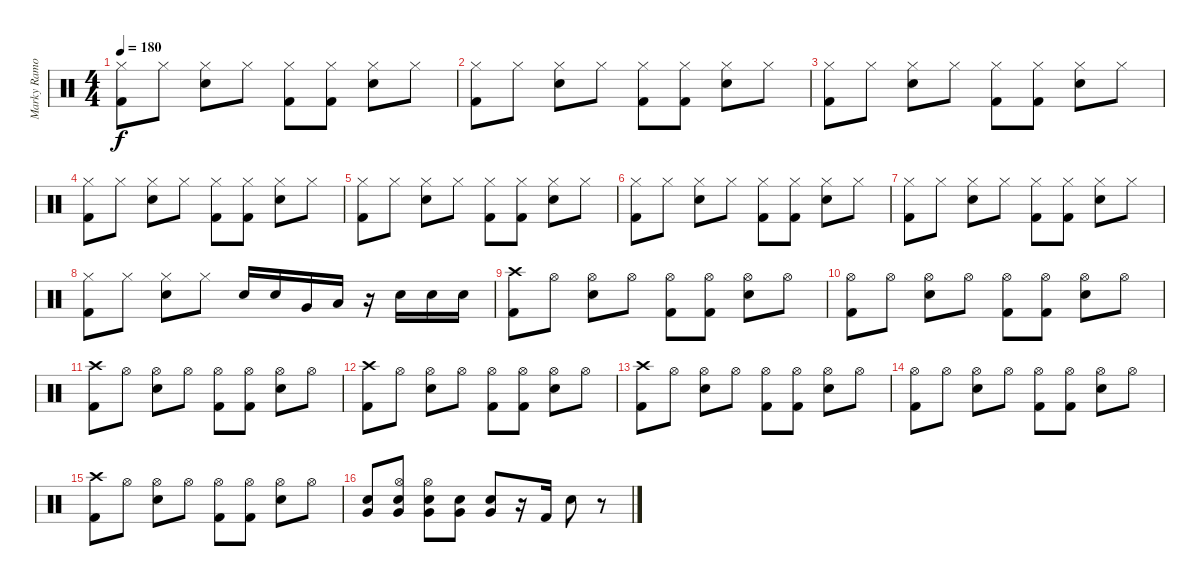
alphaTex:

\track ("Marky Ramone" "Marky Ramo") {instrument percussion}
\staff {score}
\articulation defaults
\ts (4 4)
\tempo 180
\clef neutral
\ks c
("Kick (hit) 2" "Hi-Hat (closed)").8{dy f} "Hi-Hat (closed)".8 ("Electric Snare (hit)" "Hi-Hat (closed)").8 "Hi-Hat (closed)".8 ("Kick (hit) 2" "Hi-Hat (closed)").8 ("Kick (hit) 2" "Hi-Hat (closed)").8 ("Electric Snare (hit)" "Hi-Hat (closed)").8 "Hi-Hat (closed)".8 |
("Hi-Hat (closed)" "Kick (hit) 2").8 "Hi-Hat (closed)".8 ("Electric Snare (hit)" "Hi-Hat (closed)").8 "Hi-Hat (closed)".8 ("Hi-Hat (closed)" "Kick (hit) 2").8 ("Hi-Hat (closed)" "Kick (hit) 2").8 ("Electric Snare (hit)" "Hi-Hat (closed)").8 "Hi-Hat (closed)".8 |
("Kick (hit) 2" "Hi-Hat (closed)").8 "Hi-Hat (closed)".8 ("Electric Snare (hit)" "Hi-Hat (closed)").8 "Hi-Hat (closed)".8 ("Kick (hit) 2" "Hi-Hat (closed)").8 ("Kick (hit) 2" "Hi-Hat (closed)").8 ("Electric Snare (hit)" "Hi-Hat (closed)").8 "Hi-Hat (closed)".8 |
("Hi-Hat (closed)" "Kick (hit) 2").8 "Hi-Hat (closed)".8 ("Electric Snare (hit)" "Hi-Hat (closed)").8 "Hi-Hat (closed)".8 ("Hi-Hat (closed)" "Kick (hit) 2").8 ("Hi-Hat (closed)" "Kick (hit) 2").8 ("Electric Snare (hit)" "Hi-Hat (closed)").8 "Hi-Hat (closed)".8 |
("Kick (hit) 2" "Hi-Hat (closed)").8 "Hi-Hat (closed)".8 ("Electric Snare (hit)" "Hi-Hat (closed)").8 "Hi-Hat (closed)".8 ("Kick (hit) 2" "Hi-Hat (closed)").8 ("Kick (hit) 2" "Hi-Hat (closed)").8 ("Electric Snare (hit)" "Hi-Hat (closed)").8 "Hi-Hat (closed)".8 |
("Hi-Hat (closed)" "Kick (hit) 2").8 "Hi-Hat (closed)".8 ("Electric Snare (hit)" "Hi-Hat (closed)").8 "Hi-Hat (closed)".8 ("Hi-Hat (closed)" "Kick (hit) 2").8 ("Hi-Hat (closed)" "Kick (hit) 2").8 ("Electric Snare (hit)" "Hi-Hat (closed)").8 "Hi-Hat (closed)".8 |
("Kick (hit) 2" "Hi-Hat (closed)").8 "Hi-Hat (closed)".8 ("Electric Snare (hit)" "Hi-Hat (closed)").8 "Hi-Hat (closed)".8 ("Kick (hit) 2" "Hi-Hat (closed)").8 ("Kick (hit) 2" "Hi-Hat (closed)").8 ("Electric Snare (hit)" "Hi-Hat (closed)").8 "Hi-Hat (closed)".8 |
("Hi-Hat (closed)" "Kick (hit) 2").8 "Hi-Hat (closed)".8 ("Electric Snare (hit)" "Hi-Hat (closed)").8 "Hi-Hat (closed)".8 "Electric Snare (hit)".16 "Electric Snare (hit)".16 "Very Low Tom (hit)".16 "Low Floor Tom (hit)".16 r.16 "Electric Snare (hit)".16 "Electric Snare (hit)".16 "Electric Snare (hit)".16 |
("Crash high (hit)" "Kick (hit) 2").8 "Hi-Hat (open)".8 ("Electric Snare (hit)" "Hi-Hat (open)").8 "Hi-Hat (open)".8 ("Kick (hit) 2" "Hi-Hat (open)").8 ("Kick (hit) 2" "Hi-Hat (open)").8 ("Electric Snare (hit)" "Hi-Hat (open)").8 "Hi-Hat (open)".8 |
("Hi-Hat (open)" "Kick (hit) 2").8 "Hi-Hat (open)".8 ("Hi-Hat (open)" "Electric Snare (hit)").8 "Hi-Hat (open)".8 ("Hi-Hat (open)" "Kick (hit) 2").8 ("Hi-Hat (open)" "Kick (hit) 2").8 ("Hi-Hat (open)" "Electric Snare (hit)").8 "Hi-Hat (open)".8 |
("Crash high (hit)" "Kick (hit) 2").8 "Hi-Hat (open)".8 ("Hi-Hat (open)" "Electric Snare (hit)").8 "Hi-Hat (open)".8 ("Hi-Hat (open)" "Kick (hit) 2").8 ("Hi-Hat (open)" "Kick (hit) 2").8 ("Hi-Hat (open)" "Electric Snare (hit)").8 "Hi-Hat (open)".8 |
("Crash high (hit)" "Kick (hit) 2").8 "Hi-Hat (open)".8 ("Hi-Hat (open)" "Electric Snare (hit)").8 "Hi-Hat (open)".8 ("Hi-Hat (open)" "Kick (hit) 2").8 ("Hi-Hat (open)" "Kick (hit) 2").8 ("Hi-Hat (open)" "Electric Snare (hit)").8 "Hi-Hat (open)".8 |
("Crash high (hit)" "Kick (hit) 2").8 "Hi-Hat (open)".8 ("Electric Snare (hit)" "Hi-Hat (open)").8 "Hi-Hat (open)".8 ("Kick (hit) 2" "Hi-Hat (open)").8 ("Kick (hit) 2" "Hi-Hat (open)").8 ("Electric Snare (hit)" "Hi-Hat (open)").8 "Hi-Hat (open)".8 |
("Hi-Hat (open)" "Kick (hit) 2").8 "Hi-Hat (open)".8 ("Hi-Hat (open)" "Electric Snare (hit)").8 "Hi-Hat (open)".8 ("Hi-Hat (open)" "Kick (hit) 2").8 ("Hi-Hat (open)" "Kick (hit) 2").8 ("Hi-Hat (open)" "Electric Snare (hit)").8 "Hi-Hat (open)".8 |
("Crash high (hit)" "Kick (hit) 2").8 "Hi-Hat (open)".8 ("Hi-Hat (open)" "Electric Snare (hit)").8 "Hi-Hat (open)".8 ("Hi-Hat (open)" "Kick (hit) 2").8 ("Hi-Hat (open)" "Kick (hit) 2").8 ("Hi-Hat (open)" "Electric Snare (hit)").8 "Hi-Hat (open)".8 |
("Snare (hit) 2" "Very Low Tom (hit)").8 ("Very Low Tom (hit)" "Snare (hit) 2" "Hi-Hat (open)").8 ("Very Low Tom (hit)" "Hi-Hat (open)" "Electric Snare (hit)").8 ("Very Low Tom (hit)" "Electric Snare (hit)").8 ("Very Low Tom (hit)" "Electric Snare (hit)").8 r.16 "Kick (hit) 2".16 "Electric Snare (hit)".8 r.8
